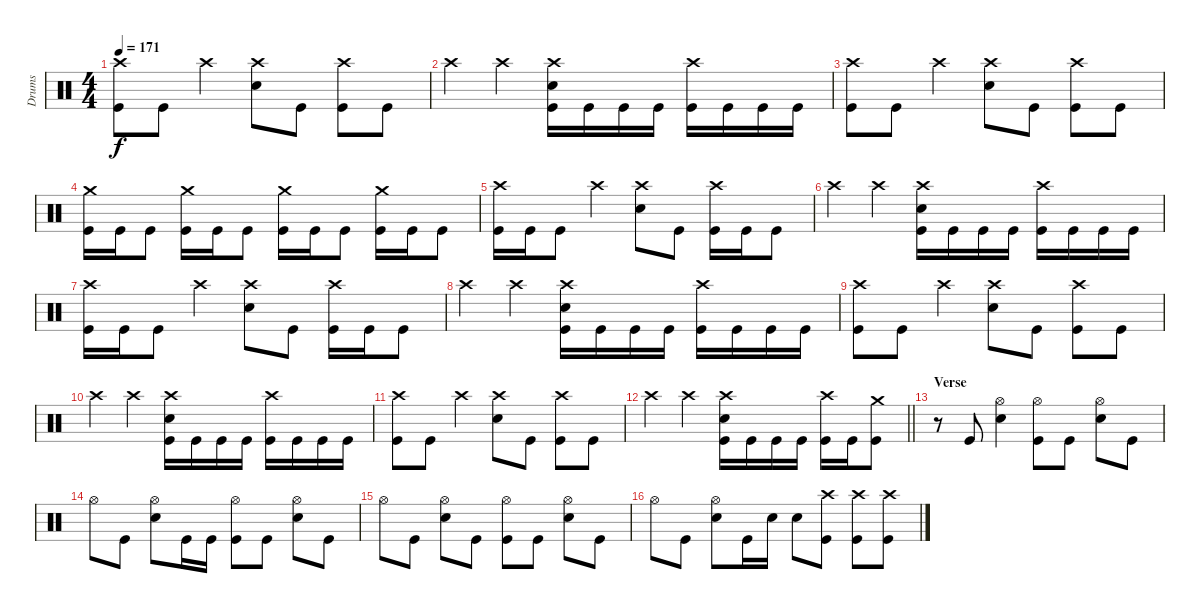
\track ("Drums" "Drums") {instrument percussion}
\staff {score}
\articulation defaults
\ts (4 4)
\tempo 171
\clef neutral
\ks c
("Crash high (hit)" "Kick (hit)").8{dy f} "Kick (hit)".8 "Crash high (hit)".4 ("Crash high (hit)" "Snare (hit) 2").8 "Kick (hit)".8 ("Crash high (hit)" "Kick (hit)").8 "Kick (hit)".8 |
"Crash high (hit)".4 "Crash high (hit)".4 ("Crash high (hit)" "Snare (hit) 2" "Kick (hit)").16 "Kick (hit)".16 "Kick (hit)".16 "Kick (hit)".16 ("Crash high (hit)" "Kick (hit)").16 "Kick (hit)".16 "Kick (hit)".16 "Kick (hit)".16 |
("Crash high (hit)" "Kick (hit)").8 "Kick (hit)".8 "Crash high (hit)".4 ("Crash high (hit)" "Snare (hit) 2").8 "Kick (hit)".8 ("Crash high (hit)" "Kick (hit)").8 "Kick (hit)".8 |
("Crash medium (hit)" "Kick (hit)").16 "Kick (hit)".16 "Kick (hit)".8 ("Crash medium (hit)" "Kick (hit)").16 "Kick (hit)".16 "Kick (hit)".8 ("Crash medium (hit)" "Kick (hit)").16 "Kick (hit)".16 "Kick (hit)".8 ("Crash medium (hit)" "Kick (hit)").16 "Kick (hit)".16 "Kick (hit)".8 |
("Crash high (hit)" "Kick (hit)").16 "Kick (hit)".16 "Kick (hit)".8 "Crash high (hit)".4 ("Crash high (hit)" "Snare (hit) 2").8 "Kick (hit)".8 ("Crash high (hit)" "Kick (hit)").16 "Kick (hit)".16 "Kick (hit)".8 |
"Crash high (hit)".4 "Crash high (hit)".4 ("Crash high (hit)" "Snare (hit) 2" "Kick (hit)").16 "Kick (hit)".16 "Kick (hit)".16 "Kick (hit)".16 ("Crash high (hit)" "Kick (hit)").16 "Kick (hit)".16 "Kick (hit)".16 "Kick (hit)".16 |
("Crash high (hit)" "Kick (hit)").16 "Kick (hit)".16 "Kick (hit)".8 "Crash high (hit)".4 ("Crash high (hit)" "Snare (hit) 2").8 "Kick (hit)".8 ("Crash high (hit)" "Kick (hit)").16 "Kick (hit)".16 "Kick (hit)".8 |
"Crash high (hit)".4 "Crash high (hit)".4 ("Crash high (hit)" "Snare (hit) 2" "Kick (hit)").16 "Kick (hit)".16 "Kick (hit)".16 "Kick (hit)".16 ("Crash high (hit)" "Kick (hit)").16 "Kick (hit)".16 "Kick (hit)".16 "Kick (hit)".16 |
("Crash high (hit)" "Kick (hit)").8 "Kick (hit)".8 "Crash high (hit)".4 ("Crash high (hit)" "Snare (hit) 2").8 "Kick (hit)".8 ("Crash high (hit)" "Kick (hit)").8 "Kick (hit)".8 |
"Crash high (hit)".4 "Crash high (hit)".4 ("Crash high (hit)" "Snare (hit) 2" "Kick (hit)").16 "Kick (hit)".16 "Kick (hit)".16 "Kick (hit)".16 ("Crash high (hit)" "Kick (hit)").16 "Kick (hit)".16 "Kick (hit)".16 "Kick (hit)".16 |
("Crash high (hit)" "Kick (hit)").8 "Kick (hit)".8 "Crash high (hit)".4 ("Crash high (hit)" "Snare (hit) 2").8 "Kick (hit)".8 ("Crash high (hit)" "Kick (hit)").8 "Kick (hit)".8 |
\barLineRight lightlight "Crash high (hit)".4 "Crash high (hit)".4
("Crash high (hit)" "Snare (hit) 2" "Kick (hit)").16 "Kick (hit)".16 "Kick (hit)".16 "Kick (hit)".16 ("Crash high (hit)" "Kick (hit)").16 "Kick (hit)".16 ("Crash medium (hit)" "Kick (hit)").8 |
\section ("" "Verse")
r.8 "Kick (hit)".8 ("Hi-Hat (open)" "Snare (hit) 2").4 ("Hi-Hat (open)" "Kick (hit)").8 "Kick (hit)".8 ("Hi-Hat (open)" "Snare (hit) 2").8 "Kick (hit)".8 |
"Hi-Hat (open)".8 "Kick (hit)".8 ("Hi-Hat (open)" "Snare (hit) 2").8 "Kick (hit)".16 "Kick (hit)".16 ("Hi-Hat (open)" "Kick (hit)").8 "Kick (hit)".8 ("Hi-Hat (open)" "Snare (hit) 2").8 "Kick (hit)".8 |
"Hi-Hat (open)".8 "Kick (hit)".8 ("Hi-Hat (open)" "Snare (hit) 2").8 "Kick (hit)".8 ("Hi-Hat (open)" "Kick (hit)").8 "Kick (hit)".8 ("Hi-Hat (open)" "Snare (hit) 2").8 "Kick (hit)".8 |
"Hi-Hat (open)".8 "Kick (hit)".8 ("Hi-Hat (open)" "Snare (hit) 2").8 "Kick (hit)".16 "Snare (hit) 2".16 "Snare (hit) 2".8 ("Crash high (hit)" "Kick (hit)").8 ("Crash high (hit)" "Kick (hit)").8 ("Crash high (hit)" "Kick (hit)").8
